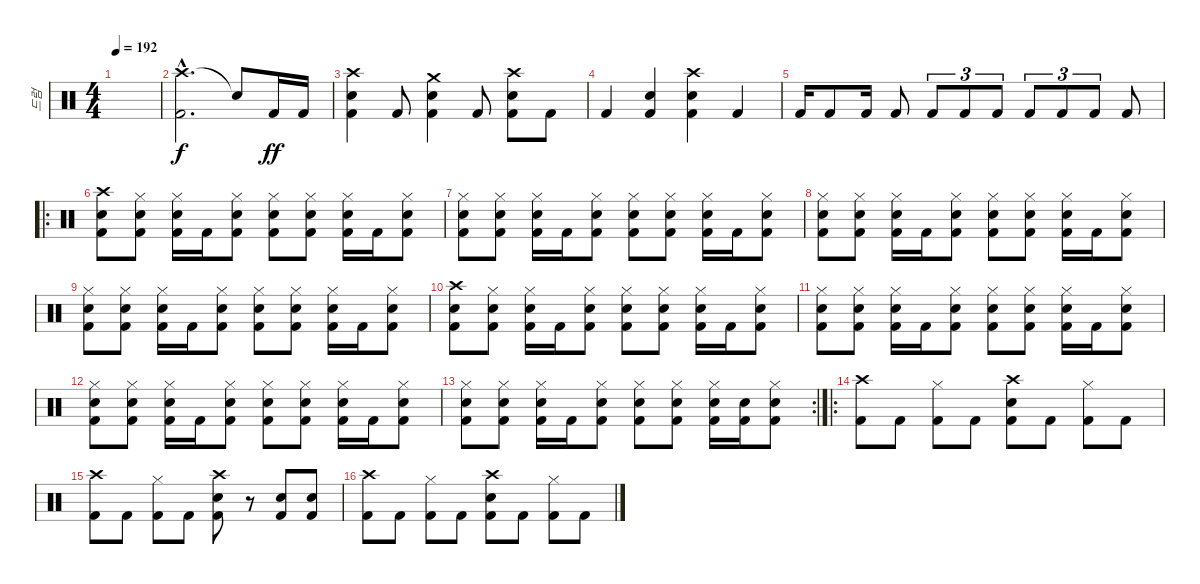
\track ("드럼" "드럼") {instrument percussion}
\staff {score}
\articulation defaults
\ts (4 4)
\tempo 192
\clef neutral
\ks c
|
("Crash high (hit)"{hac} "Kick (hit) 2"{hac}).2{d} "Snare (hit)"{t}.8{dy f} "Kick (hit) 2".16{dy ff} "Kick (hit) 2".16 |
("Crash high (hit)" "Electric Snare (hit)" "Kick (hit) 2").4 "Kick (hit) 2".8 ("Crash medium (hit)" "Electric Snare (hit)" "Kick (hit) 2").4 "Kick (hit) 2".8 ("Crash high (hit)" "Electric Snare (hit)" "Kick (hit) 2").8 "Kick (hit) 2".8 |
"Kick (hit) 2".4 ("Electric Snare (hit)" "Kick (hit) 2").4 ("Crash high (hit)" "Electric Snare (hit)" "Kick (hit) 2").4 "Kick (hit) 2".4 |
"Kick (hit) 2".16 "Kick (hit) 2".8 "Kick (hit) 2".16 "Kick (hit) 2".8 "Kick (hit) 2".8{tu (3 2)} "Kick (hit) 2".8{tu (3 2)} "Kick (hit) 2".8{tu (3 2)} "Kick (hit) 2".8{tu (3 2)} "Kick (hit) 2".8{tu (3 2)} "Kick (hit) 2".8{tu (3 2)} "Kick (hit) 2".8 |
\ro
("Crash high (hit)" "Electric Snare (hit)" "Kick (hit) 2").8 ("Hi-Hat (closed)" "Snare (hit) 2" "Kick (hit) 2").8 ("Hi-Hat (closed)" "Electric Snare (hit)" "Kick (hit) 2").16 "Kick (hit) 2".16 ("Hi-Hat (closed)" "Snare (hit) 2" "Kick (hit) 2").8 ("Hi-Hat (closed)" "Electric Snare (hit)" "Kick (hit) 2").8 ("Hi-Hat (closed)" "Snare (hit) 2" "Kick (hit) 2").8 ("Hi-Hat (closed)" "Electric Snare (hit)" "Kick (hit) 2").16 "Kick (hit) 2".16 ("Hi-Hat (closed)" "Snare (hit) 2" "Kick (hit) 2").8 |
("Hi-Hat (closed)" "Electric Snare (hit)" "Kick (hit) 2").8 ("Hi-Hat (closed)" "Snare (hit) 2" "Kick (hit) 2").8 ("Hi-Hat (closed)" "Electric Snare (hit)" "Kick (hit) 2").16 "Kick (hit) 2".16 ("Hi-Hat (closed)" "Snare (hit) 2" "Kick (hit) 2").8 ("Hi-Hat (closed)" "Electric Snare (hit)" "Kick (hit) 2").8 ("Hi-Hat (closed)" "Snare (hit) 2" "Kick (hit) 2").8 ("Hi-Hat (closed)" "Electric Snare (hit)" "Kick (hit) 2").16 "Kick (hit) 2".16 ("Hi-Hat (closed)" "Snare (hit) 2" "Kick (hit) 2").8 |
("Hi-Hat (closed)" "Electric Snare (hit)" "Kick (hit) 2").8 ("Hi-Hat (closed)" "Snare (hit) 2" "Kick (hit) 2").8 ("Hi-Hat (closed)" "Electric Snare (hit)" "Kick (hit) 2").16 "Kick (hit) 2".16 ("Hi-Hat (closed)" "Snare (hit) 2" "Kick (hit) 2").8 ("Hi-Hat (closed)" "Electric Snare (hit)" "Kick (hit) 2").8 ("Hi-Hat (closed)" "Snare (hit) 2" "Kick (hit) 2").8 ("Hi-Hat (closed)" "Electric Snare (hit)" "Kick (hit) 2").16 "Kick (hit) 2".16 ("Hi-Hat (closed)" "Snare (hit) 2" "Kick (hit) 2").8 |
("Hi-Hat (closed)" "Electric Snare (hit)" "Kick (hit) 2").8 ("Hi-Hat (closed)" "Snare (hit) 2" "Kick (hit) 2").8 ("Hi-Hat (closed)" "Electric Snare (hit)" "Kick (hit) 2").16 "Kick (hit) 2".16 ("Hi-Hat (closed)" "Snare (hit) 2" "Kick (hit) 2").8 ("Hi-Hat (closed)" "Electric Snare (hit)" "Kick (hit) 2").8 ("Hi-Hat (closed)" "Snare (hit) 2" "Kick (hit) 2").8 ("Hi-Hat (closed)" "Electric Snare (hit)" "Kick (hit) 2").16 "Kick (hit) 2".16 ("Hi-Hat (closed)" "Snare (hit) 2" "Kick (hit) 2").8 |
("Crash high (hit)" "Electric Snare (hit)" "Kick (hit) 2").8 ("Hi-Hat (closed)" "Snare (hit) 2" "Kick (hit) 2").8 ("Hi-Hat (closed)" "Electric Snare (hit)" "Kick (hit) 2").16 "Kick (hit) 2".16 ("Hi-Hat (closed)" "Snare (hit) 2" "Kick (hit) 2").8 ("Hi-Hat (closed)" "Electric Snare (hit)" "Kick (hit) 2").8 ("Hi-Hat (closed)" "Snare (hit) 2" "Kick (hit) 2").8 ("Hi-Hat (closed)" "Electric Snare (hit)" "Kick (hit) 2").16 "Kick (hit) 2".16 ("Hi-Hat (closed)" "Snare (hit) 2" "Kick (hit) 2").8 |
("Hi-Hat (closed)" "Electric Snare (hit)" "Kick (hit) 2").8 ("Hi-Hat (closed)" "Snare (hit) 2" "Kick (hit) 2").8 ("Hi-Hat (closed)" "Electric Snare (hit)" "Kick (hit) 2").16 "Kick (hit) 2".16 ("Hi-Hat (closed)" "Snare (hit) 2" "Kick (hit) 2").8 ("Hi-Hat (closed)" "Electric Snare (hit)" "Kick (hit) 2").8 ("Hi-Hat (closed)" "Snare (hit) 2" "Kick (hit) 2").8 ("Hi-Hat (closed)" "Electric Snare (hit)" "Kick (hit) 2").16 "Kick (hit) 2".16 ("Hi-Hat (closed)" "Snare (hit) 2" "Kick (hit) 2").8 |
("Hi-Hat (closed)" "Electric Snare (hit)" "Kick (hit) 2").8 ("Hi-Hat (closed)" "Snare (hit) 2" "Kick (hit) 2").8 ("Hi-Hat (closed)" "Electric Snare (hit)" "Kick (hit) 2").16 "Kick (hit) 2".16 ("Hi-Hat (closed)" "Snare (hit) 2" "Kick (hit) 2").8 ("Hi-Hat (closed)" "Electric Snare (hit)" "Kick (hit) 2").8 ("Hi-Hat (closed)" "Snare (hit) 2" "Kick (hit) 2").8 ("Hi-Hat (closed)" "Electric Snare (hit)" "Kick (hit) 2").16 "Kick (hit) 2".16 ("Hi-Hat (closed)" "Snare (hit) 2" "Kick (hit) 2").8 |
\rc 2
("Hi-Hat (closed)" "Electric Snare (hit)" "Kick (hit) 2").8 ("Hi-Hat (closed)" "Snare (hit) 2" "Kick (hit) 2").8 ("Hi-Hat (closed)" "Electric Snare (hit)" "Kick (hit) 2").16 "Kick (hit) 2".16 ("Hi-Hat (closed)" "Snare (hit) 2" "Kick (hit) 2").8 ("Hi-Hat (closed)" "Electric Snare (hit)" "Kick (hit) 2").8 ("Hi-Hat (closed)" "Snare (hit) 2" "Kick (hit) 2").8 ("Hi-Hat (closed)" "Electric Snare (hit)" "Kick (hit) 2").16 ("Electric Snare (hit)" "Kick (hit) 2").16 ("Hi-Hat (closed)" "Snare (hit) 2" "Kick (hit) 2").8 |
\ro
("Crash high (hit)" "Kick (hit) 2").8 "Kick (hit) 2".8 ("Hi-Hat (closed)" "Kick (hit) 2").8 "Kick (hit) 2".8 ("Crash high (hit)" "Electric Snare (hit)" "Kick (hit) 2").8 "Kick (hit) 2".8 ("Hi-Hat (closed)" "Kick (hit) 2").8 "Kick (hit) 2".8 |
("Crash high (hit)" "Kick (hit) 2").8 "Kick (hit) 2".8 ("Hi-Hat (closed)" "Kick (hit) 2").8 "Kick (hit) 2".8 ("Crash high (hit)" "Electric Snare (hit)" "Kick (hit) 2").8 r.8 ("Electric Snare (hit)" "Kick (hit) 2").8 ("Electric Snare (hit)" "Kick (hit) 2").8 |
("Crash high (hit)" "Kick (hit) 2").8 "Kick (hit) 2".8 ("Hi-Hat (closed)" "Kick (hit) 2").8 "Kick (hit) 2".8 ("Crash high (hit)" "Electric Snare (hit)" "Kick (hit) 2").8 "Kick (hit) 2".8 ("Hi-Hat (closed)" "Kick (hit) 2").8 "Kick (hit) 2".8
